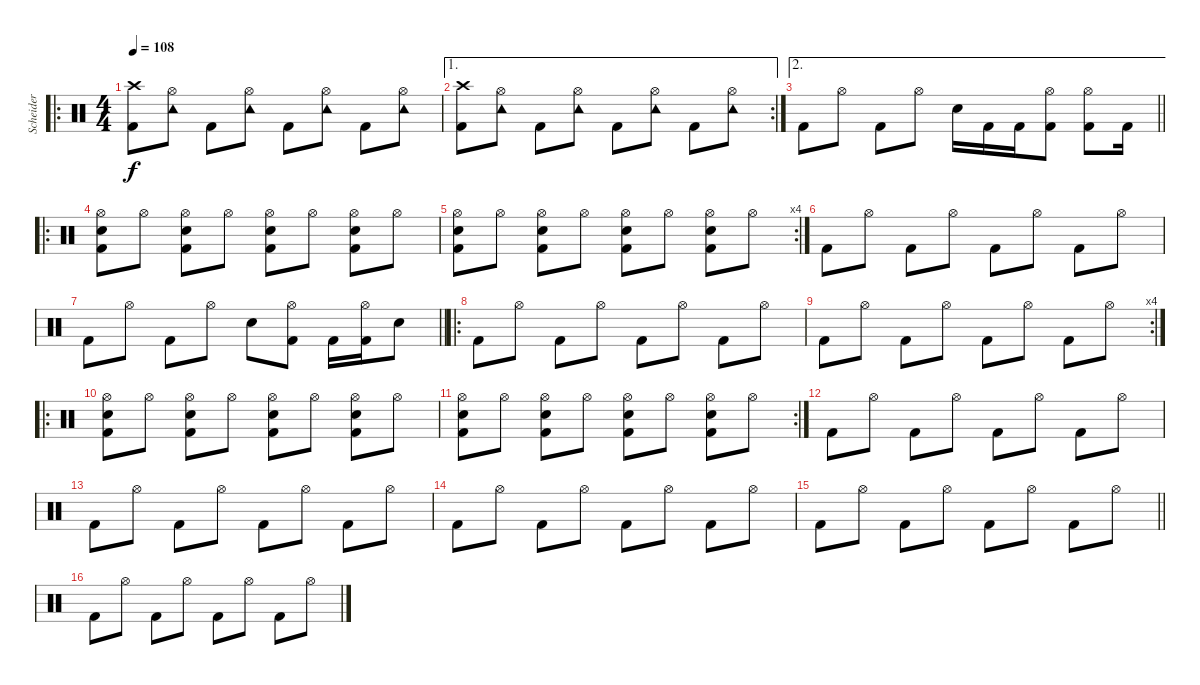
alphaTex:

\track ("Scheider" "Scheider") {instrument percussion}
\staff {score}
\articulation defaults
\ro
\ts (4 4)
\tempo 108
\clef neutral
\ks c
("Crash high (hit)" "Kick (hit) 2").8{dy f} ("Tambourine (hit)" "Hi-Hat (open)").8 "Kick (hit) 2".8 ("Tambourine (hit)" "Hi-Hat (open)").8 "Kick (hit) 2".8 ("Tambourine (hit)" "Hi-Hat (open)").8 "Kick (hit) 2".8 ("Tambourine (hit)" "Hi-Hat (open)").8 |
\ae 1
\rc 2
("Crash high (hit)" "Kick (hit) 2").8 ("Tambourine (hit)" "Hi-Hat (open)").8 "Kick (hit) 2".8 ("Tambourine (hit)" "Hi-Hat (open)").8 "Kick (hit) 2".8 ("Tambourine (hit)" "Hi-Hat (open)").8 "Kick (hit) 2".8 ("Tambourine (hit)" "Hi-Hat (open)").8 |
\ae 2
\barLineRight lightlight "Kick (hit) 2".8 "Hi-Hat (open)".8 "Kick (hit) 2".8 "Hi-Hat (open)".8 "Electric Snare (hit)".16 "Kick (hit) 2".16 "Kick (hit) 2".16
("Hi-Hat (open)" "Kick (hit) 2").8 ("Hi-Hat (open)" "Kick (hit) 2").8 "Kick (hit) 2".16 |
\ro
("Hi-Hat (open)" "Electric Snare (hit)" "Kick (hit) 2").8 "Hi-Hat (open)".8 ("Hi-Hat (open)" "Electric Snare (hit)" "Kick (hit) 2").8 "Hi-Hat (open)".8 ("Hi-Hat (open)" "Electric Snare (hit)" "Kick (hit) 2").8 "Hi-Hat (open)".8 ("Hi-Hat (open)" "Electric Snare (hit)" "Kick (hit) 2").8 "Hi-Hat (open)".8 |
\rc 4
("Hi-Hat (open)" "Electric Snare (hit)" "Kick (hit) 2").8 "Hi-Hat (open)".8 ("Hi-Hat (open)" "Electric Snare (hit)" "Kick (hit) 2").8 "Hi-Hat (open)".8 ("Hi-Hat (open)" "Electric Snare (hit)" "Kick (hit) 2").8 "Hi-Hat (open)".8 ("Hi-Hat (open)" "Electric Snare (hit)" "Kick (hit) 2").8 "Hi-Hat (open)".8 |
"Kick (hit) 2".8 "Hi-Hat (open)".8 "Kick (hit) 2".8 "Hi-Hat (open)".8 "Kick (hit) 2".8 "Hi-Hat (open)".8 "Kick (hit) 2".8 "Hi-Hat (open)".8 |
\barLineRight lightlight "Kick (hit) 2".8 "Hi-Hat (open)".8 "Kick (hit) 2".8 "Hi-Hat (open)".8 "Electric Snare (hit)".8
("Hi-Hat (open)" "Kick (hit) 2").8 "Kick (hit) 2".16 ("Hi-Hat (open)" "Kick (hit) 2").16 "Electric Snare (hit)".8 |
\ro "Kick (hit) 2".8 "Hi-Hat (open)".8 "Kick (hit) 2".8 "Hi-Hat (open)".8 "Kick (hit) 2".8 "Hi-Hat (open)".8 "Kick (hit) 2".8 "Hi-Hat (open)".8
|
\rc 4 "Kick (hit) 2".8 "Hi-Hat (open)".8 "Kick (hit) 2".8 "Hi-Hat (open)".8 "Kick (hit) 2".8 "Hi-Hat (open)".8 "Kick (hit) 2".8 "Hi-Hat (open)".8
|
\ro
("Hi-Hat (open)" "Electric Snare (hit)" "Kick (hit) 2").8 "Hi-Hat (open)".8 ("Hi-Hat (open)" "Electric Snare (hit)" "Kick (hit) 2").8 "Hi-Hat (open)".8 ("Hi-Hat (open)" "Electric Snare (hit)" "Kick (hit) 2").8 "Hi-Hat (open)".8 ("Hi-Hat (open)" "Electric Snare (hit)" "Kick (hit) 2").8 "Hi-Hat (open)".8 |
\rc 2
("Hi-Hat (open)" "Electric Snare (hit)" "Kick (hit) 2").8 "Hi-Hat (open)".8 ("Hi-Hat (open)" "Electric Snare (hit)" "Kick (hit) 2").8 "Hi-Hat (open)".8 ("Hi-Hat (open)" "Electric Snare (hit)" "Kick (hit) 2").8 "Hi-Hat (open)".8 ("Hi-Hat (open)" "Electric Snare (hit)" "Kick (hit) 2").8 "Hi-Hat (open)".8 |
"Kick (hit) 2".8 "Hi-Hat (open)".8 "Kick (hit) 2".8 "Hi-Hat (open)".8 "Kick (hit) 2".8 "Hi-Hat (open)".8 "Kick (hit) 2".8 "Hi-Hat (open)".8 |
"Kick (hit) 2".8 "Hi-Hat (open)".8 "Kick (hit) 2".8 "Hi-Hat (open)".8 "Kick (hit) 2".8 "Hi-Hat (open)".8 "Kick (hit) 2".8 "Hi-Hat (open)".8 |
"Kick (hit) 2".8 "Hi-Hat (open)".8 "Kick (hit) 2".8 "Hi-Hat (open)".8 "Kick (hit) 2".8 "Hi-Hat (open)".8 "Kick (hit) 2".8 "Hi-Hat (open)".8 |
\barLineRight lightlight "Kick (hit) 2".8 "Hi-Hat (open)".8 "Kick (hit) 2".8 "Hi-Hat (open)".8 "Kick (hit) 2".8 "Hi-Hat (open)".8 "Kick (hit) 2".8 "Hi-Hat (open)".8
|
"Kick (hit) 2".8 "Hi-Hat (open)".8 "Kick (hit) 2".8 "Hi-Hat (open)".8 "Kick (hit) 2".8 "Hi-Hat (open)".8 "Kick (hit) 2".8 "Hi-Hat (open)".8
